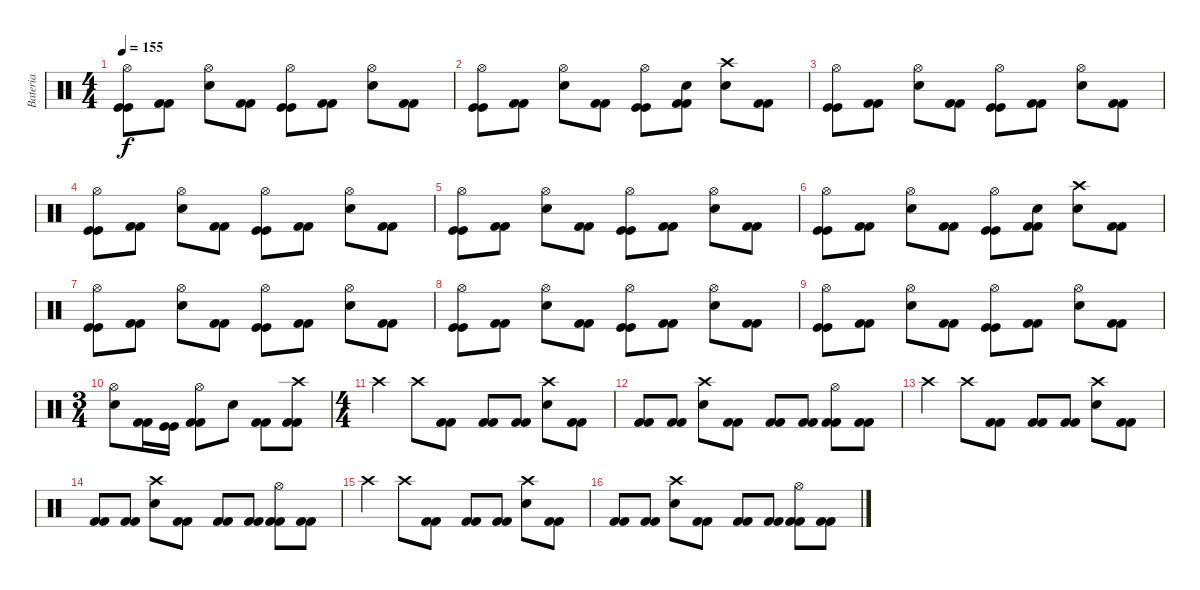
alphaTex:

\track ("Bateria" "Bateria") {instrument percussion}
\staff {score}
\articulation defaults
\ts (4 4)
\tempo 155
\clef neutral
\ks c
("Kick (hit)" "Kick (hit)" "Hi-Hat (open)").8{dy f} ("Kick (hit) 2" "Kick (hit) 2").8 ("Snare (hit) 2" "Hi-Hat (open)").8 ("Kick (hit) 2" "Kick (hit) 2").8 ("Kick (hit)" "Kick (hit)" "Hi-Hat (open)").8 ("Kick (hit) 2" "Kick (hit) 2").8 ("Snare (hit) 2" "Hi-Hat (open)").8 ("Kick (hit) 2" "Kick (hit) 2").8 |
("Kick (hit)" "Kick (hit)" "Hi-Hat (open)").8 ("Kick (hit) 2" "Kick (hit) 2").8 ("Snare (hit) 2" "Hi-Hat (open)").8 ("Kick (hit) 2" "Kick (hit) 2").8 ("Kick (hit)" "Kick (hit)" "Hi-Hat (open)").8 ("Kick (hit) 2" "Kick (hit) 2" "Snare (hit) 2").8 ("Snare (hit) 2" "Crash high (hit)").8 ("Kick (hit) 2" "Kick (hit) 2").8 |
("Kick (hit)" "Kick (hit)" "Hi-Hat (open)").8 ("Kick (hit) 2" "Kick (hit) 2").8 ("Snare (hit) 2" "Hi-Hat (open)").8 ("Kick (hit) 2" "Kick (hit) 2").8 ("Kick (hit)" "Kick (hit)" "Hi-Hat (open)").8 ("Kick (hit) 2" "Kick (hit) 2").8 ("Snare (hit) 2" "Hi-Hat (open)").8 ("Kick (hit) 2" "Kick (hit) 2").8 |
("Kick (hit)" "Kick (hit)" "Hi-Hat (open)").8 ("Kick (hit) 2" "Kick (hit) 2").8 ("Snare (hit) 2" "Hi-Hat (open)").8 ("Kick (hit) 2" "Kick (hit) 2").8 ("Kick (hit)" "Kick (hit)" "Hi-Hat (open)").8 ("Kick (hit) 2" "Kick (hit) 2").8 ("Snare (hit) 2" "Hi-Hat (open)").8 ("Kick (hit) 2" "Kick (hit) 2").8 |
("Kick (hit)" "Kick (hit)" "Hi-Hat (open)").8 ("Kick (hit) 2" "Kick (hit) 2").8 ("Snare (hit) 2" "Hi-Hat (open)").8 ("Kick (hit) 2" "Kick (hit) 2").8 ("Kick (hit)" "Kick (hit)" "Hi-Hat (open)").8 ("Kick (hit) 2" "Kick (hit) 2").8 ("Snare (hit) 2" "Hi-Hat (open)").8 ("Kick (hit) 2" "Kick (hit) 2").8 |
("Kick (hit)" "Kick (hit)" "Hi-Hat (open)").8 ("Kick (hit) 2" "Kick (hit) 2").8 ("Snare (hit) 2" "Hi-Hat (open)").8 ("Kick (hit) 2" "Kick (hit) 2").8 ("Kick (hit)" "Kick (hit)" "Hi-Hat (open)").8 ("Kick (hit) 2" "Kick (hit) 2" "Snare (hit) 2").8 ("Snare (hit) 2" "Crash high (hit)").8 ("Kick (hit) 2" "Kick (hit) 2").8 |
("Kick (hit)" "Kick (hit)" "Hi-Hat (open)").8 ("Kick (hit) 2" "Kick (hit) 2").8 ("Snare (hit) 2" "Hi-Hat (open)").8 ("Kick (hit) 2" "Kick (hit) 2").8 ("Kick (hit)" "Kick (hit)" "Hi-Hat (open)").8 ("Kick (hit) 2" "Kick (hit) 2").8 ("Snare (hit) 2" "Hi-Hat (open)").8 ("Kick (hit) 2" "Kick (hit) 2").8 |
("Kick (hit)" "Kick (hit)" "Hi-Hat (open)").8 ("Kick (hit) 2" "Kick (hit) 2").8 ("Snare (hit) 2" "Hi-Hat (open)").8 ("Kick (hit) 2" "Kick (hit) 2").8 ("Kick (hit)" "Kick (hit)" "Hi-Hat (open)").8 ("Kick (hit) 2" "Kick (hit) 2").8 ("Snare (hit) 2" "Hi-Hat (open)").8 ("Kick (hit) 2" "Kick (hit) 2").8 |
("Kick (hit)" "Kick (hit)" "Hi-Hat (open)").8 ("Kick (hit) 2" "Kick (hit) 2").8 ("Snare (hit) 2" "Hi-Hat (open)").8 ("Kick (hit) 2" "Kick (hit) 2").8 ("Kick (hit)" "Kick (hit)" "Hi-Hat (open)").8 ("Kick (hit) 2" "Kick (hit) 2").8 ("Snare (hit) 2" "Hi-Hat (open)").8 ("Kick (hit) 2" "Kick (hit) 2").8 |
\ts (3 4)
("Snare (hit) 2" "Hi-Hat (open)").8 ("Kick (hit) 2" "Kick (hit) 2").16 ("Kick (hit)" "Kick (hit)").16 ("Kick (hit) 2" "Kick (hit) 2" "Hi-Hat (open)").8 "Snare (hit) 2".8 ("Kick (hit) 2" "Kick (hit) 2").8 ("Kick (hit) 2" "Kick (hit) 2" "Crash high (hit)").8 |
\ts (4 4)
"Crash high (hit)".4 "Crash high (hit)".8 ("Kick (hit) 2" "Kick (hit) 2").8 ("Kick (hit) 2" "Kick (hit) 2").8 ("Kick (hit) 2" "Kick (hit) 2").8 ("Snare (hit) 2" "Crash high (hit)").8 ("Kick (hit) 2" "Kick (hit) 2").8 |
("Kick (hit) 2" "Kick (hit) 2").8 ("Kick (hit) 2" "Kick (hit) 2").8 ("Snare (hit) 2" "Crash high (hit)").8 ("Kick (hit) 2" "Kick (hit) 2").8 ("Kick (hit) 2" "Kick (hit) 2").8 ("Kick (hit) 2" "Kick (hit) 2").8 ("Kick (hit) 2" "Kick (hit) 2" "Hi-Hat (open)").8 ("Kick (hit) 2" "Kick (hit) 2").8 |
"Crash high (hit)".4 "Crash high (hit)".8 ("Kick (hit) 2" "Kick (hit) 2").8 ("Kick (hit) 2" "Kick (hit) 2").8 ("Kick (hit) 2" "Kick (hit) 2").8 ("Snare (hit) 2" "Crash high (hit)").8 ("Kick (hit) 2" "Kick (hit) 2").8 |
("Kick (hit) 2" "Kick (hit) 2").8 ("Kick (hit) 2" "Kick (hit) 2").8 ("Snare (hit) 2" "Crash high (hit)").8 ("Kick (hit) 2" "Kick (hit) 2").8 ("Kick (hit) 2" "Kick (hit) 2").8 ("Kick (hit) 2" "Kick (hit) 2").8 ("Kick (hit) 2" "Kick (hit) 2" "Hi-Hat (open)").8 ("Kick (hit) 2" "Kick (hit) 2").8 |
"Crash high (hit)".4 "Crash high (hit)".8 ("Kick (hit) 2" "Kick (hit) 2").8 ("Kick (hit) 2" "Kick (hit) 2").8 ("Kick (hit) 2" "Kick (hit) 2").8 ("Snare (hit) 2" "Crash high (hit)").8 ("Kick (hit) 2" "Kick (hit) 2").8 |
("Kick (hit) 2" "Kick (hit) 2").8 ("Kick (hit) 2" "Kick (hit) 2").8 ("Snare (hit) 2" "Crash high (hit)").8 ("Kick (hit) 2" "Kick (hit) 2").8 ("Kick (hit) 2" "Kick (hit) 2").8 ("Kick (hit) 2" "Kick (hit) 2").8 ("Kick (hit) 2" "Kick (hit) 2" "Hi-Hat (open)").8 ("Kick (hit) 2" "Kick (hit) 2").8
